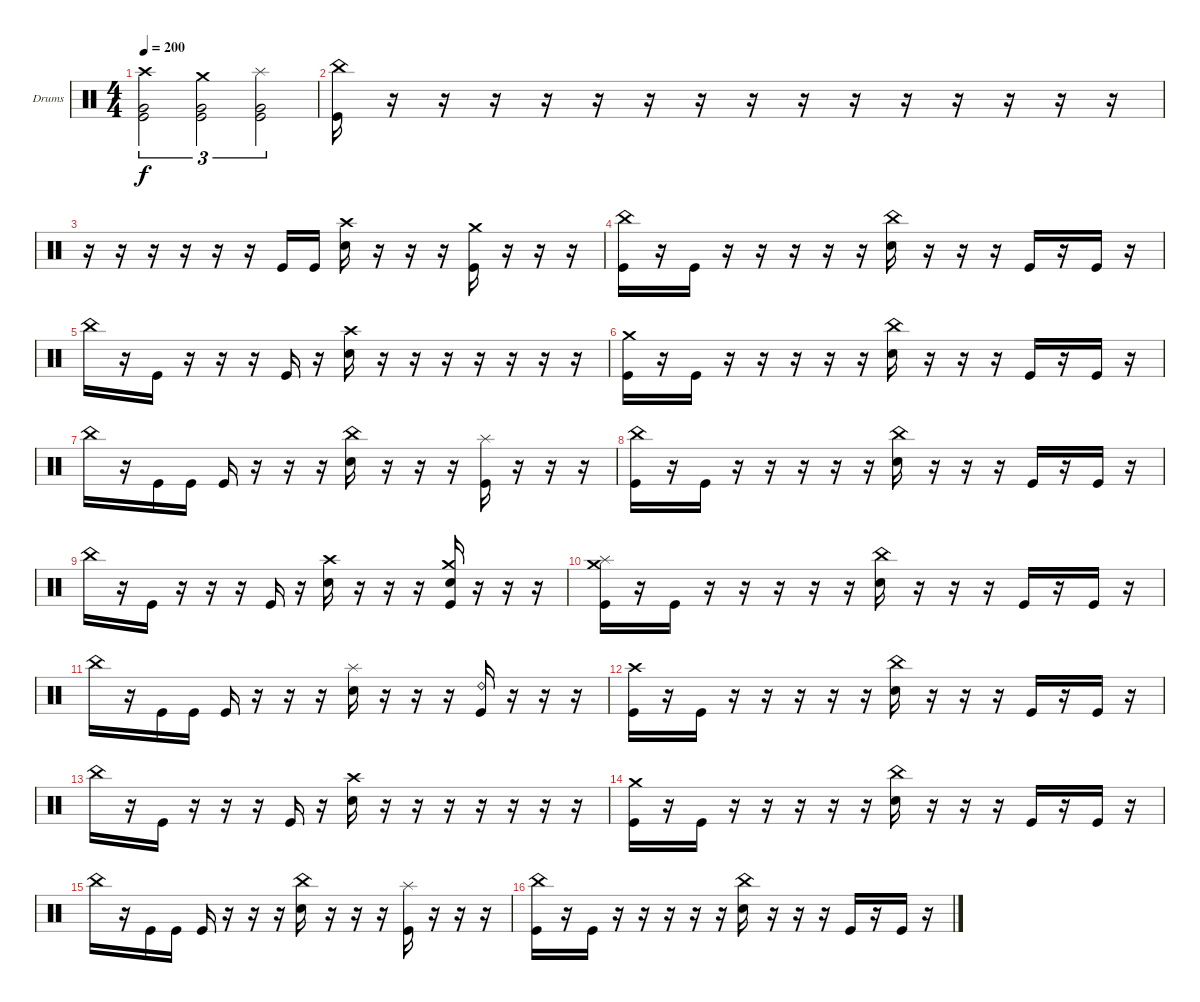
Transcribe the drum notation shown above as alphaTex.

\defaultSystemsLayout 4
\bracketExtendMode groupsimilarinstruments
\firstSystemTrackNameOrientation horizontal
\otherSystemsTrackNameOrientation horizontal
\track ("Drumkit" "Drums") {instrument percussion}
\staff {score}
\articulation defaults
\ts (4 4)
\tempo 200
\clef neutral
\ks c
("Kick (hit)" "Very Low Tom (hit)" "Crash high (hit)").2{tu (3 2) dy f} ("Kick (hit)" "Very Low Tom (hit)" "Crash medium (hit)").2{tu (3 2)} ("Kick (hit)" "Very Low Tom (hit)" "Splash (hit)").2{tu (3 2)} |
("Kick (hit)" "China (hit)").16 r.16 r.16 r.16 r.16 r.16 r.16 r.16 r.16 r.16 r.16 r.16 r.16 r.16 r.16 r.16 |
r.16 r.16 r.16 r.16 r.16 r.16 "Kick (hit)".16 "Kick (hit)".16 ("Snare (hit) 2" "Crash high (hit)").16 r.16 r.16 r.16 ("Kick (hit)" "Crash medium (hit)").16 r.16 r.16 r.16 |
("Kick (hit)" "China (hit)").16 r.16 "Kick (hit)".16 r.16 r.16 r.16 r.16 r.16 ("Snare (hit) 2" "China (hit)").16 r.16 r.16 r.16 "Kick (hit)".16 r.16 "Kick (hit)".16 r.16 |
"China (hit)".16 r.16 "Kick (hit)".16 r.16 r.16 r.16 "Kick (hit)".16 r.16 ("Snare (hit) 2" "Crash high (hit)").16 r.16 r.16 r.16 r.16 r.16 r.16 r.16 |
("Kick (hit)" "Crash medium (hit)").16 r.16 "Kick (hit)".16 r.16 r.16 r.16 r.16 r.16 ("Snare (hit) 2" "China (hit)").16 r.16 r.16 r.16 "Kick (hit)".16 r.16 "Kick (hit)".16 r.16 |
"China (hit)".16 r.16 "Kick (hit)".16 "Kick (hit)".16 "Kick (hit)".16 r.16 r.16 r.16 ("Snare (hit) 2" "China (hit)").16 r.16 r.16 r.16 ("Kick (hit)" "Splash (hit)").16 r.16 r.16 r.16 |
("Kick (hit)" "China (hit)").16 r.16 "Kick (hit)".16 r.16 r.16 r.16 r.16 r.16 ("Snare (hit) 2" "China (hit)").16 r.16 r.16 r.16 "Kick (hit)".16 r.16 "Kick (hit)".16 r.16 |
"China (hit)".16 r.16 "Kick (hit)".16 r.16 r.16 r.16 "Kick (hit)".16 r.16 ("Snare (hit) 2" "Crash high (hit)").16 r.16 r.16 r.16 ("Kick (hit)" "Snare (hit) 2" "Crash medium (hit)").16 r.16 r.16 r.16 |
("Kick (hit)" "Splash (hit)" "Crash medium (hit)").16 r.16 "Kick (hit)".16 r.16 r.16 r.16 r.16 r.16 ("Snare (hit) 2" "China (hit)").16 r.16 r.16 r.16 "Kick (hit)".16 r.16 "Kick (hit)".16 r.16 |
"China (hit)".16 r.16 "Kick (hit)".16 "Kick (hit)".16 "Kick (hit)".16 r.16 r.16 r.16 ("Snare (hit) 2" "Splash (hit)").16 r.16 r.16 r.16 ("Kick (hit)" "Ride (bell) 2").16 r.16 r.16 r.16 |
("Kick (hit)" "Crash high (hit)").16 r.16 "Kick (hit)".16 r.16 r.16 r.16 r.16 r.16 ("Snare (hit) 2" "China (hit)").16 r.16 r.16 r.16 "Kick (hit)".16 r.16 "Kick (hit)".16 r.16 |
"China (hit)".16 r.16 "Kick (hit)".16 r.16 r.16 r.16 "Kick (hit)".16 r.16 ("Snare (hit) 2" "Crash high (hit)").16 r.16 r.16 r.16 r.16 r.16 r.16 r.16 |
("Kick (hit)" "Crash medium (hit)").16 r.16 "Kick (hit)".16 r.16 r.16 r.16 r.16 r.16 ("Snare (hit) 2" "China (hit)").16 r.16 r.16 r.16 "Kick (hit)".16 r.16 "Kick (hit)".16 r.16 |
"China (hit)".16 r.16 "Kick (hit)".16 "Kick (hit)".16 "Kick (hit)".16 r.16 r.16 r.16 ("Snare (hit) 2" "China (hit)").16 r.16 r.16 r.16 ("Kick (hit)" "Splash (hit)").16 r.16 r.16 r.16 |
("Kick (hit)" "China (hit)").16 r.16 "Kick (hit)".16 r.16 r.16 r.16 r.16 r.16 ("Snare (hit) 2" "China (hit)").16 r.16 r.16 r.16 "Kick (hit)".16 r.16 "Kick (hit)".16 r.16
